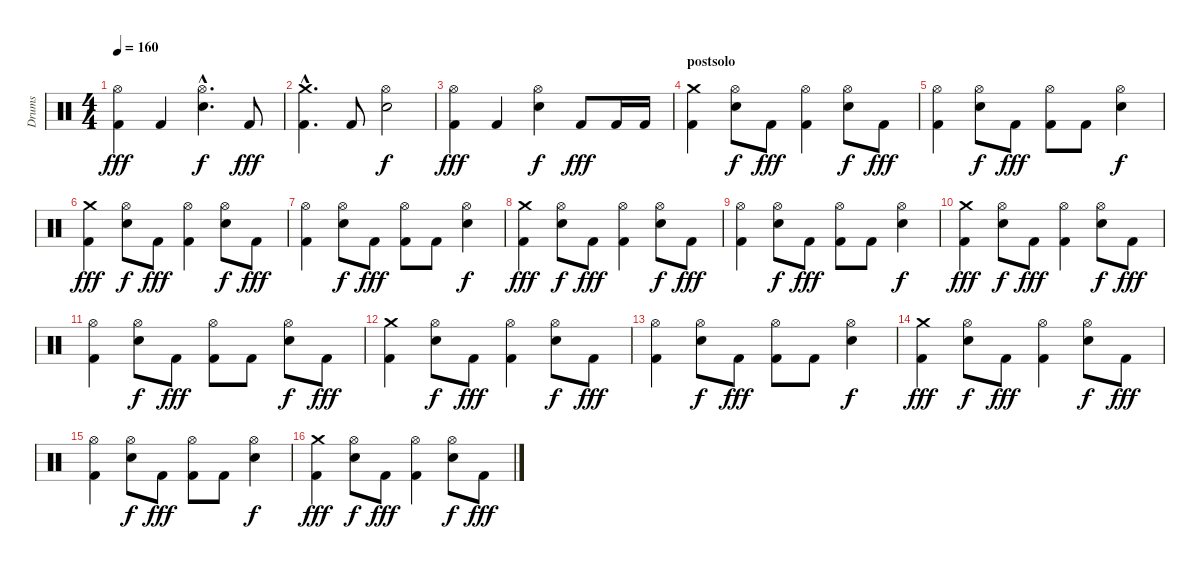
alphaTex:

\track ("Drums" "Drums") {instrument percussion}
\staff {score}
\articulation defaults
\ts (4 4)
\tempo 160
\clef neutral
\ks c
("Hi-Hat (open)" "Kick (hit) 2").4{dy fff} "Kick (hit) 2".4 ("Hi-Hat (open)"{hac} "Electric Snare (hit)"{hac}).4{d dy f} "Kick (hit) 2".8{dy fff} |
("Crash medium (hit)"{hac} "Kick (hit) 2"{hac}).4{d} "Kick (hit) 2".8 ("Hi-Hat (open)" "Electric Snare (hit)").2{dy f} |
("Hi-Hat (open)" "Kick (hit) 2").4{dy fff} "Kick (hit) 2".4 ("Hi-Hat (open)" "Electric Snare (hit)").4{dy f} "Kick (hit) 2".8{dy fff} "Kick (hit) 2".16 "Kick (hit) 2".16 |
\section ("" "postsolo")
("Crash medium (hit)" "Kick (hit) 2").4 ("Hi-Hat (open)" "Electric Snare (hit)").8{dy f} "Kick (hit) 2".8{dy fff} ("Hi-Hat (open)" "Kick (hit) 2").4 ("Hi-Hat (open)" "Electric Snare (hit)").8{dy f} "Kick (hit) 2".8{dy fff} |
("Hi-Hat (open)" "Kick (hit) 2").4 ("Hi-Hat (open)" "Electric Snare (hit)").8{dy f} "Kick (hit) 2".8{dy fff} ("Hi-Hat (open)" "Kick (hit) 2").8 "Kick (hit) 2".8 ("Hi-Hat (open)" "Electric Snare (hit)").4{dy f} |
("Crash medium (hit)" "Kick (hit) 2").4{dy fff} ("Hi-Hat (open)" "Electric Snare (hit)").8{dy f} "Kick (hit) 2".8{dy fff} ("Hi-Hat (open)" "Kick (hit) 2").4 ("Hi-Hat (open)" "Electric Snare (hit)").8{dy f} "Kick (hit) 2".8{dy fff} |
("Hi-Hat (open)" "Kick (hit) 2").4 ("Hi-Hat (open)" "Electric Snare (hit)").8{dy f} "Kick (hit) 2".8{dy fff} ("Hi-Hat (open)" "Kick (hit) 2").8 "Kick (hit) 2".8 ("Hi-Hat (open)" "Electric Snare (hit)").4{dy f} |
("Crash medium (hit)" "Kick (hit) 2").4{dy fff} ("Hi-Hat (open)" "Electric Snare (hit)").8{dy f} "Kick (hit) 2".8{dy fff} ("Hi-Hat (open)" "Kick (hit) 2").4 ("Hi-Hat (open)" "Electric Snare (hit)").8{dy f} "Kick (hit) 2".8{dy fff} |
("Hi-Hat (open)" "Kick (hit) 2").4 ("Hi-Hat (open)" "Electric Snare (hit)").8{dy f} "Kick (hit) 2".8{dy fff} ("Hi-Hat (open)" "Kick (hit) 2").8 "Kick (hit) 2".8 ("Hi-Hat (open)" "Electric Snare (hit)").4{dy f} |
("Crash medium (hit)" "Kick (hit) 2").4{dy fff} ("Hi-Hat (open)" "Electric Snare (hit)").8{dy f} "Kick (hit) 2".8{dy fff} ("Hi-Hat (open)" "Kick (hit) 2").4 ("Hi-Hat (open)" "Electric Snare (hit)").8{dy f} "Kick (hit) 2".8{dy fff} |
("Hi-Hat (open)" "Kick (hit) 2").4 ("Hi-Hat (open)" "Electric Snare (hit)").8{dy f} "Kick (hit) 2".8{dy fff} ("Hi-Hat (open)" "Kick (hit) 2").8 "Kick (hit) 2".8 ("Hi-Hat (open)" "Electric Snare (hit)").8{dy f} "Kick (hit) 2".8{dy fff} |
("Crash medium (hit)" "Kick (hit) 2").4 ("Hi-Hat (open)" "Electric Snare (hit)").8{dy f} "Kick (hit) 2".8{dy fff} ("Hi-Hat (open)" "Kick (hit) 2").4 ("Hi-Hat (open)" "Electric Snare (hit)").8{dy f} "Kick (hit) 2".8{dy fff} |
("Hi-Hat (open)" "Kick (hit) 2").4 ("Hi-Hat (open)" "Electric Snare (hit)").8{dy f} "Kick (hit) 2".8{dy fff} ("Hi-Hat (open)" "Kick (hit) 2").8 "Kick (hit) 2".8 ("Hi-Hat (open)" "Electric Snare (hit)").4{dy f} |
("Crash medium (hit)" "Kick (hit) 2").4{dy fff} ("Hi-Hat (open)" "Electric Snare (hit)").8{dy f} "Kick (hit) 2".8{dy fff} ("Hi-Hat (open)" "Kick (hit) 2").4 ("Hi-Hat (open)" "Electric Snare (hit)").8{dy f} "Kick (hit) 2".8{dy fff} |
("Hi-Hat (open)" "Kick (hit) 2").4 ("Hi-Hat (open)" "Electric Snare (hit)").8{dy f} "Kick (hit) 2".8{dy fff} ("Hi-Hat (open)" "Kick (hit) 2").8 "Kick (hit) 2".8 ("Hi-Hat (open)" "Electric Snare (hit)").4{dy f} |
("Crash medium (hit)" "Kick (hit) 2").4{dy fff} ("Hi-Hat (open)" "Electric Snare (hit)").8{dy f} "Kick (hit) 2".8{dy fff} ("Hi-Hat (open)" "Kick (hit) 2").4 ("Hi-Hat (open)" "Electric Snare (hit)").8{dy f} "Kick (hit) 2".8{dy fff}
